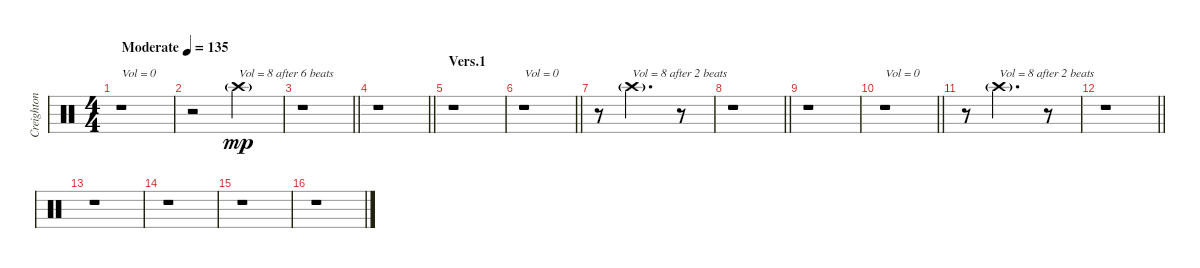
\track ("Creighton Barrett (Drums)" "Creighton ") {instrument percussion}
\staff {score}
\articulation defaults
\ts (4 4)
\tempo (135 "Moderate")
\clef neutral
\ks c
r.1{txt "Vol = 0" dy mp volume 0} |
r.2 "Crash high (hit)"{g}.2{txt "Vol = 8 after 6 beats" volume 8} |
\barLineRight lightlight
r.1 |
\section ("" "")
\barLineRight lightlight
r.1 |
\section ("" "Vers.1")
r.1 |
\barLineRight lightlight
r.1{txt "Vol = 0" volume 0} |
r.8 "Crash high (hit)"{g}.2{d txt "Vol = 8 after 2 beats" volume 8} r.8 |
\barLineRight lightlight
r.1 |
r.1 |
\barLineRight lightlight
r.1{txt "Vol = 0" volume 0} |
r.8 "Crash high (hit)"{g}.2{d txt "Vol = 8 after 2 beats" volume 8} r.8 |
\barLineRight lightlight
r.1 |
\section ("" "")
r.1 |
r.1 |
r.1 |
r.1
